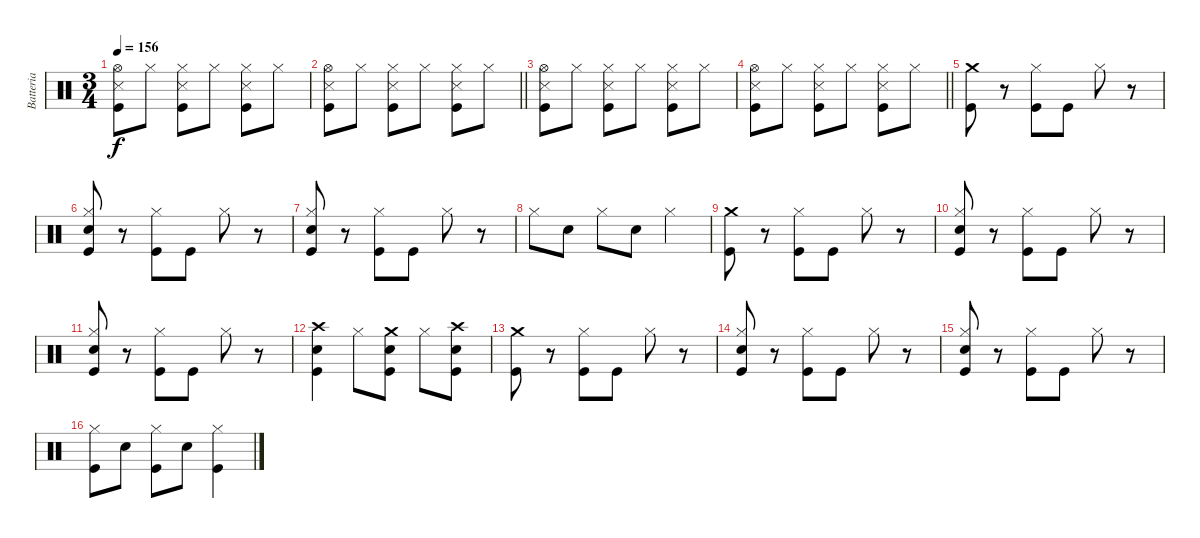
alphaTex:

\track ("Batteria" "Batteria") {instrument percussion}
\staff {score}
\articulation defaults
\ts (3 4)
\tempo 156
\clef neutral
\ks c
("Hi-Hat (open)" "Kick (hit)" "Snare (side stick) 3").8{dy f} "Hi-Hat (closed)".8 ("Hi-Hat (closed)" "Kick (hit)" "Snare (side stick) 3").8 "Hi-Hat (closed)".8 ("Hi-Hat (closed)" "Kick (hit)" "Snare (side stick) 3").8 "Hi-Hat (closed)".8 |
\barLineRight lightlight
("Hi-Hat (open)" "Kick (hit)" "Snare (side stick) 3").8 "Hi-Hat (closed)".8 ("Hi-Hat (closed)" "Kick (hit)" "Snare (side stick) 3").8 "Hi-Hat (closed)".8 ("Hi-Hat (closed)" "Kick (hit)" "Snare (side stick) 3").8 "Hi-Hat (closed)".8 |
("Hi-Hat (open)" "Kick (hit)" "Snare (side stick) 3").8 "Hi-Hat (closed)".8 ("Hi-Hat (closed)" "Kick (hit)" "Snare (side stick) 3").8 "Hi-Hat (closed)".8 ("Hi-Hat (closed)" "Kick (hit)" "Snare (side stick) 3").8 "Hi-Hat (closed)".8 |
\barLineRight lightlight
("Hi-Hat (open)" "Kick (hit)" "Snare (side stick) 3").8 "Hi-Hat (closed)".8 ("Hi-Hat (closed)" "Kick (hit)" "Snare (side stick) 3").8 "Hi-Hat (closed)".8 ("Hi-Hat (closed)" "Kick (hit)" "Snare (side stick) 3").8 "Hi-Hat (closed)".8 |
\section ("" "")
("Crash medium (hit)" "Kick (hit)").8 r.8 ("Hi-Hat (closed)" "Kick (hit)").8 "Kick (hit)".8 "Hi-Hat (closed)".8 r.8 |
("Hi-Hat (closed)" "Electric Snare (hit)" "Kick (hit)").8 r.8 ("Hi-Hat (closed)" "Kick (hit)").8 "Kick (hit)".8 "Hi-Hat (closed)".8 r.8 |
("Hi-Hat (closed)" "Electric Snare (hit)" "Kick (hit)").8 r.8 ("Hi-Hat (closed)" "Kick (hit)").8 "Kick (hit)".8 "Hi-Hat (closed)".8 r.8 |
"Hi-Hat (closed)".8 "Electric Snare (hit)".8 "Hi-Hat (closed)".8 "Electric Snare (hit)".8 "Hi-Hat (closed)".4 |
("Crash medium (hit)" "Kick (hit)").8 r.8 ("Hi-Hat (closed)" "Kick (hit)").8 "Kick (hit)".8 "Hi-Hat (closed)".8 r.8 |
("Hi-Hat (closed)" "Electric Snare (hit)" "Kick (hit)").8 r.8 ("Hi-Hat (closed)" "Kick (hit)").8 "Kick (hit)".8 "Hi-Hat (closed)".8 r.8 |
("Hi-Hat (closed)" "Electric Snare (hit)" "Kick (hit)").8 r.8 ("Hi-Hat (closed)" "Kick (hit)").8 "Kick (hit)".8 "Hi-Hat (closed)".8 r.8 |
("Crash high (hit)" "Electric Snare (hit)" "Kick (hit)").4 "Hi-Hat (closed)".8 ("Crash medium (hit)" "Electric Snare (hit)" "Kick (hit)").8 "Hi-Hat (closed)".8 ("Crash high (hit)" "Electric Snare (hit)" "Kick (hit)").8 |
("Crash medium (hit)" "Kick (hit)").8 r.8 ("Hi-Hat (closed)" "Kick (hit)").8 "Kick (hit)".8 "Hi-Hat (closed)".8 r.8 |
("Hi-Hat (closed)" "Electric Snare (hit)" "Kick (hit)").8 r.8 ("Hi-Hat (closed)" "Kick (hit)").8 "Kick (hit)".8 "Hi-Hat (closed)".8 r.8 |
("Hi-Hat (closed)" "Electric Snare (hit)" "Kick (hit)").8 r.8 ("Hi-Hat (closed)" "Kick (hit)").8 "Kick (hit)".8 "Hi-Hat (closed)".8 r.8 |
("Hi-Hat (closed)" "Kick (hit)").8 "Electric Snare (hit)".8 ("Hi-Hat (closed)" "Kick (hit)").8 "Electric Snare (hit)".8 ("Hi-Hat (closed)" "Kick (hit)").4
